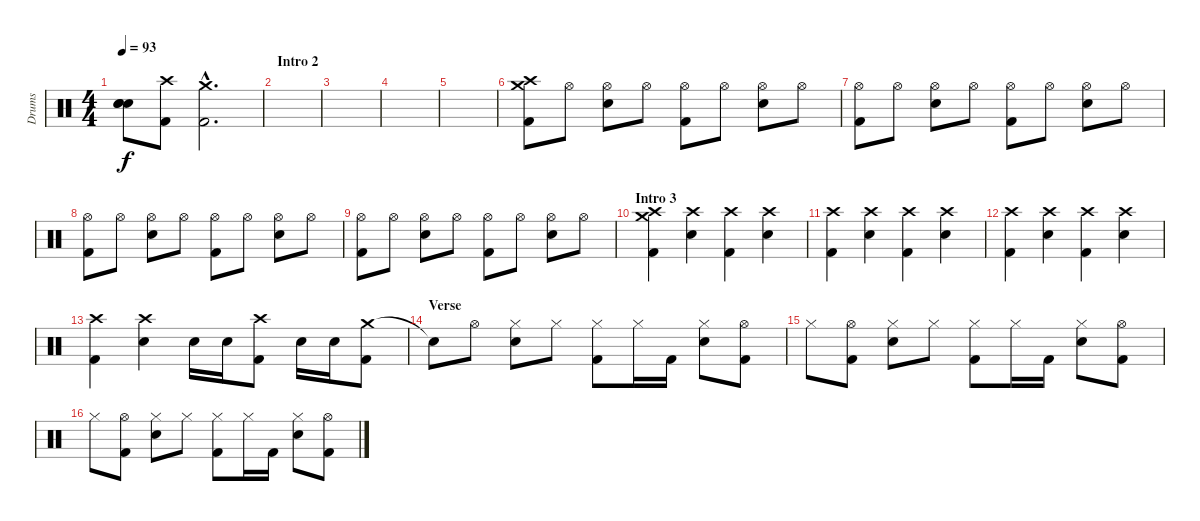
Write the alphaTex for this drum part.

\track ("Drums" "Drums") {instrument percussion}
\staff {score}
\articulation defaults
\ts (4 4)
\tempo 93
\clef neutral
\ks c
("Snare (hit)"{t} "Snare (hit)"{t} "Snare (hit)"{t}).8{dy f} ("Crash high (hit)" "Kick (hit) 2").8 ("Crash medium (hit)"{hac} "Kick (hit) 2"{hac}).2{d} |
\section ("" "Intro 2")
|
|
|
|
("Crash high (hit)" "Crash medium (hit)" "Kick (hit) 2").8 "Hi-Hat (open)".8 ("Hi-Hat (open)" "Electric Snare (hit)").8 "Hi-Hat (open)".8 ("Hi-Hat (open)" "Kick (hit) 2").8 "Hi-Hat (open)".8 ("Hi-Hat (open)" "Electric Snare (hit)").8 "Hi-Hat (open)".8 |
("Hi-Hat (open)" "Kick (hit) 2").8 "Hi-Hat (open)".8 ("Hi-Hat (open)" "Electric Snare (hit)").8 "Hi-Hat (open)".8 ("Hi-Hat (open)" "Kick (hit) 2").8 "Hi-Hat (open)".8 ("Hi-Hat (open)" "Electric Snare (hit)").8 "Hi-Hat (open)".8 |
("Hi-Hat (open)" "Kick (hit) 2").8 "Hi-Hat (open)".8 ("Hi-Hat (open)" "Electric Snare (hit)").8 "Hi-Hat (open)".8 ("Hi-Hat (open)" "Kick (hit) 2").8 "Hi-Hat (open)".8 ("Hi-Hat (open)" "Electric Snare (hit)").8 "Hi-Hat (open)".8 |
("Hi-Hat (open)" "Kick (hit) 2").8 "Hi-Hat (open)".8 ("Hi-Hat (open)" "Electric Snare (hit)").8 "Hi-Hat (open)".8 ("Hi-Hat (open)" "Kick (hit) 2").8 "Hi-Hat (open)".8 ("Hi-Hat (open)" "Electric Snare (hit)").8 "Hi-Hat (open)".8 |
\section ("" "Intro 3")
("Crash high (hit)" "Crash medium (hit)" "Kick (hit) 2").4 ("Crash high (hit)" "Electric Snare (hit)").4 ("Crash high (hit)" "Kick (hit) 2").4 ("Crash high (hit)" "Electric Snare (hit)").4 |
("Crash high (hit)" "Kick (hit) 2").4 ("Crash high (hit)" "Electric Snare (hit)").4 ("Crash high (hit)" "Kick (hit) 2").4 ("Crash high (hit)" "Electric Snare (hit)").4 |
("Crash high (hit)" "Kick (hit) 2").4 ("Crash high (hit)" "Electric Snare (hit)").4 ("Crash high (hit)" "Kick (hit) 2").4 ("Crash high (hit)" "Electric Snare (hit)").4 |
("Crash high (hit)" "Kick (hit) 2").4 ("Crash high (hit)" "Electric Snare (hit)").4 "Electric Snare (hit)".16 "Electric Snare (hit)".16 ("Crash high (hit)" "Kick (hit) 2").8 "Electric Snare (hit)".16 "Electric Snare (hit)".16 ("Crash medium (hit)" "Kick (hit) 2").8 |
\section ("" "Verse")
"Snare (hit)"{t}.8 "Hi-Hat (open)".8 ("Hi-Hat (closed)" "Electric Snare (hit)").8 "Hi-Hat (closed)".8 ("Hi-Hat (closed)" "Kick (hit) 2").8 "Hi-Hat (closed)".16 "Kick (hit) 2".16 ("Hi-Hat (closed)" "Electric Snare (hit)").8 ("Hi-Hat (open)" "Kick (hit) 2").8 |
"Hi-Hat (closed)".8 ("Hi-Hat (open)" "Kick (hit) 2").8 ("Hi-Hat (closed)" "Electric Snare (hit)").8 "Hi-Hat (closed)".8 ("Hi-Hat (closed)" "Kick (hit) 2").8 "Hi-Hat (closed)".16 "Kick (hit) 2".16 ("Hi-Hat (closed)" "Electric Snare (hit)").8 ("Hi-Hat (open)" "Kick (hit) 2").8 |
"Hi-Hat (closed)".8 ("Hi-Hat (open)" "Kick (hit) 2").8 ("Hi-Hat (closed)" "Electric Snare (hit)").8 "Hi-Hat (closed)".8 ("Hi-Hat (closed)" "Kick (hit) 2").8 "Hi-Hat (closed)".16 "Kick (hit) 2".16 ("Hi-Hat (closed)" "Electric Snare (hit)").8 ("Hi-Hat (open)" "Kick (hit) 2").8
